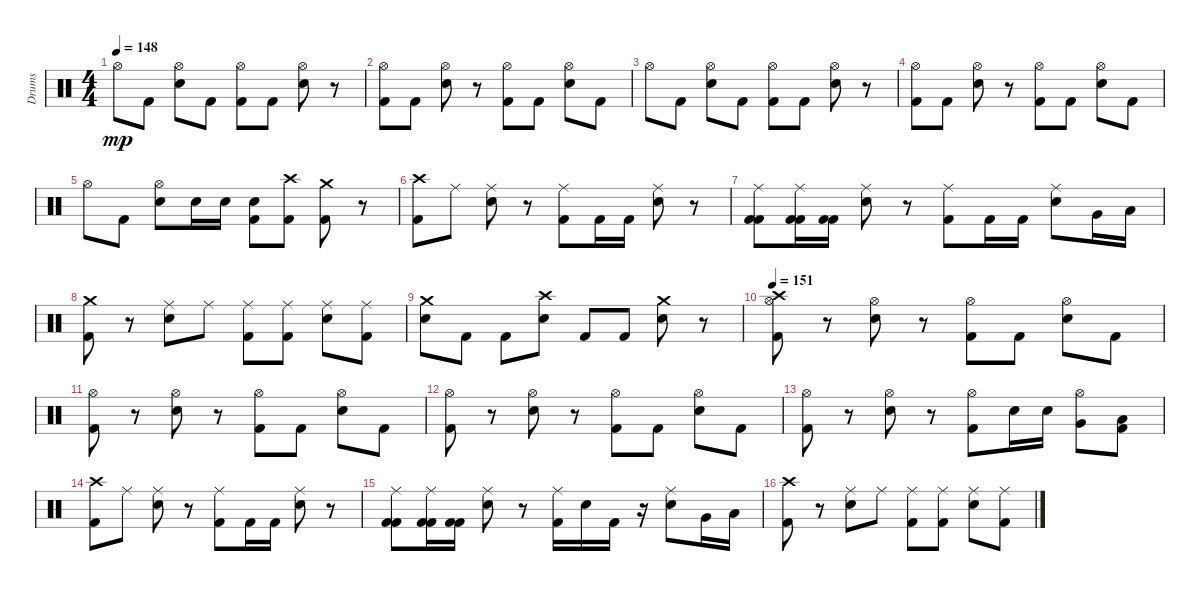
\track ("Drums" "Drums") {instrument percussion}
\staff {score}
\articulation defaults
\ts (4 4)
\tempo 148
\clef neutral
\ks c "Hi-Hat (open)".8{dy mp} "Kick (hit) 2".8
("Snare (hit) 2" "Hi-Hat (open)").8 "Kick (hit) 2".8 ("Kick (hit) 2" "Hi-Hat (open)").8 "Kick (hit) 2".8 ("Snare (hit) 2" "Hi-Hat (open)").8 r.8 |
("Kick (hit) 2" "Hi-Hat (open)").8 "Kick (hit) 2".8 ("Snare (hit) 2" "Hi-Hat (open)").8 r.8 ("Kick (hit) 2" "Hi-Hat (open)").8 "Kick (hit) 2".8 ("Hi-Hat (open)" "Snare (hit) 2").8 "Kick (hit) 2".8 |
"Hi-Hat (open)".8 "Kick (hit) 2".8 ("Hi-Hat (open)" "Snare (hit) 2").8 "Kick (hit) 2".8 ("Hi-Hat (open)" "Kick (hit) 2").8 "Kick (hit) 2".8 ("Hi-Hat (open)" "Snare (hit) 2").8 r.8 |
("Kick (hit) 2" "Hi-Hat (open)").8 "Kick (hit) 2".8 ("Hi-Hat (open)" "Snare (hit) 2").8 r.8 ("Kick (hit) 2" "Hi-Hat (open)").8 "Kick (hit) 2".8 ("Hi-Hat (open)" "Snare (hit) 2").8 "Kick (hit) 2".8 |
"Hi-Hat (open)".8 "Kick (hit) 2".8 ("Electric Snare (hit)" "Hi-Hat (open)").8 "Electric Snare (hit)".16 "Electric Snare (hit)".16 ("Kick (hit) 2" "Electric Snare (hit)").8 ("Crash high (hit)" "Kick (hit) 2").8 ("Kick (hit) 2" "Crash medium (hit)").8 r.8 |
("Kick (hit) 2" "Crash high (hit)").8 "Ride (middle)".8 ("Snare (hit) 2" "Ride (middle)").8 r.8 ("Kick (hit) 2" "Ride (middle)").8 "Kick (hit) 2".16 "Kick (hit) 2".16 ("Ride (middle)" "Snare (hit) 2").8 r.8 |
("Kick (hit) 2" "Kick (hit) 2" "Ride (middle)").8 ("Kick (hit) 2" "Ride (middle)" "Kick (hit) 2").16 ("Kick (hit) 2" "Kick (hit) 2").16 ("Snare (hit) 2" "Ride (middle)").8 r.8 ("Ride (middle)" "Kick (hit) 2").8 "Kick (hit) 2".16 "Kick (hit) 2".16 ("Ride (middle)" "Snare (hit) 2").8 "Very Low Tom (hit)".16 "Low Floor Tom (hit)".16 |
("Kick (hit) 2" "Crash medium (hit)").8 r.8 ("Snare (hit) 2" "Ride (middle)").8 "Ride (middle)".8 ("Ride (middle)" "Kick (hit) 2").8 ("Kick (hit) 2" "Ride (middle)").8 ("Ride (middle)" "Snare (hit) 2").8 ("Ride (middle)" "Kick (hit) 2").8 |
("Crash medium (hit)" "Snare (hit) 2").8 "Kick (hit) 2".8 "Kick (hit) 2".8 ("Crash high (hit)" "Snare (hit) 2").8 "Kick (hit) 2".8 "Kick (hit) 2".8 ("Crash medium (hit)" "Snare (hit) 2").8 r.8 |
\tempo 151
("Kick (hit) 2" "Crash high (hit)" "Hi-Hat (open)").8 r.8 ("Snare (hit) 2" "Hi-Hat (open)").8 r.8 ("Kick (hit) 2" "Hi-Hat (open)").8 "Kick (hit) 2".8 ("Snare (hit) 2" "Hi-Hat (open)").8 "Kick (hit) 2".8 |
("Kick (hit) 2" "Hi-Hat (open)").8 r.8 ("Hi-Hat (open)" "Snare (hit) 2").8 r.8 ("Hi-Hat (open)" "Kick (hit) 2").8 "Kick (hit) 2".8 ("Hi-Hat (open)" "Snare (hit) 2").8 "Kick (hit) 2".8 |
("Kick (hit) 2" "Hi-Hat (open)").8 r.8 ("Snare (hit) 2" "Hi-Hat (open)").8 r.8 ("Hi-Hat (open)" "Kick (hit) 2").8 "Kick (hit) 2".8 ("Hi-Hat (open)" "Snare (hit) 2").8 "Kick (hit) 2".8 |
("Kick (hit) 2" "Hi-Hat (open)").8 r.8 ("Snare (hit) 2" "Hi-Hat (open)").8 r.8 ("Kick (hit) 2" "Hi-Hat (open)").8 "Electric Snare (hit)".16 "Electric Snare (hit)".16 ("Hi-Hat (open)" "Very Low Tom (hit)").8 ("Kick (hit) 2" "Low Floor Tom (hit)").8 |
("Kick (hit) 2" "Crash high (hit)").8 "Ride (middle)".8 ("Snare (hit) 2" "Ride (middle)").8 r.8 ("Ride (middle)" "Kick (hit) 2").8 "Kick (hit) 2".16 "Kick (hit) 2".16 ("Snare (hit) 2" "Ride (middle)").8 r.8 |
("Ride (middle)" "Kick (hit) 2" "Kick (hit) 2").8 ("Ride (middle)" "Kick (hit) 2" "Kick (hit) 2").16 ("Kick (hit) 2" "Kick (hit) 2").16 ("Ride (middle)" "Snare (hit) 2").8 r.8 ("Ride (middle)" "Kick (hit) 2").16 "Snare (hit) 2".16 "Kick (hit) 2".16 r.16 ("Ride (middle)" "Snare (hit) 2").8 "Very Low Tom (hit)".16 "Low Floor Tom (hit)".16 |
("Crash high (hit)" "Kick (hit) 2").8 r.8 ("Ride (middle)" "Snare (hit) 2").8 "Ride (middle)".8 ("Ride (middle)" "Kick (hit) 2").8 ("Ride (middle)" "Kick (hit) 2").8 ("Ride (middle)" "Snare (hit) 2").8 ("Kick (hit) 2" "Ride (middle)").8
